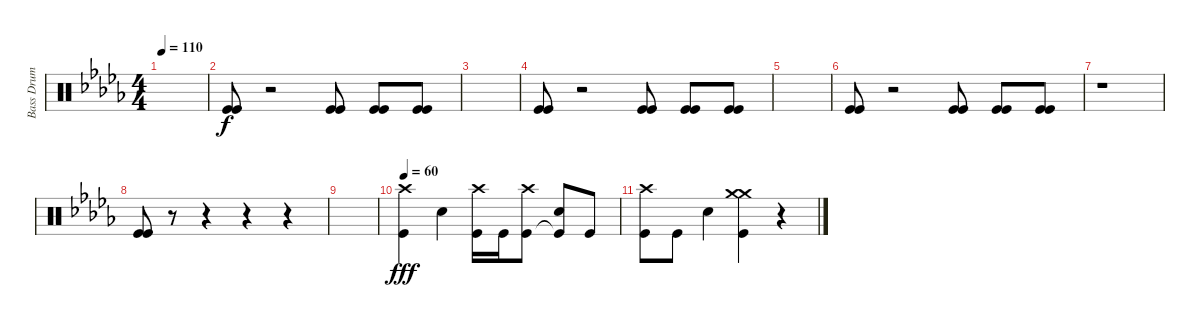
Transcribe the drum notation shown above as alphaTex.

\track ("Bass Drum" "Bass Drum") {instrument percussion}
\staff {score}
\articulation defaults
\ts (4 4)
\tempo 110
\clef neutral
\ks db
|
("Kick (hit)" "Kick (hit)").8 r.2 ("Kick (hit)" "Kick (hit)").8 ("Kick (hit)" "Kick (hit)").8 ("Kick (hit)" "Kick (hit)").8 |
|
("Kick (hit)" "Kick (hit)").8 r.2 ("Kick (hit)" "Kick (hit)").8 ("Kick (hit)" "Kick (hit)").8 ("Kick (hit)" "Kick (hit)").8 |
|
("Kick (hit)" "Kick (hit)").8 r.2 ("Kick (hit)" "Kick (hit)").8 ("Kick (hit)" "Kick (hit)").8 ("Kick (hit)" "Kick (hit)").8 |
r.1 |
("Kick (hit)" "Kick (hit)").8 r.8 r.4 r.4 r.4 |
|
\tempo 60
("Crash high (hit)" "Kick (hit)").4{dy fff} "Snare (hit) 2".4 ("Crash high (hit)" "Kick (hit)").16 "Kick (hit)".16 ("Crash high (hit)" "Kick (hit)").8 ("Snare (hit) 2" "Kick (hit)"{t}).8 "Kick (hit)".8 |
("Crash high (hit)" "Kick (hit)").8 "Kick (hit)".8 "Snare (hit) 2".4 ("Crash medium (hit)" "Crash medium (hit)" "Kick (hit)").4 r.4
